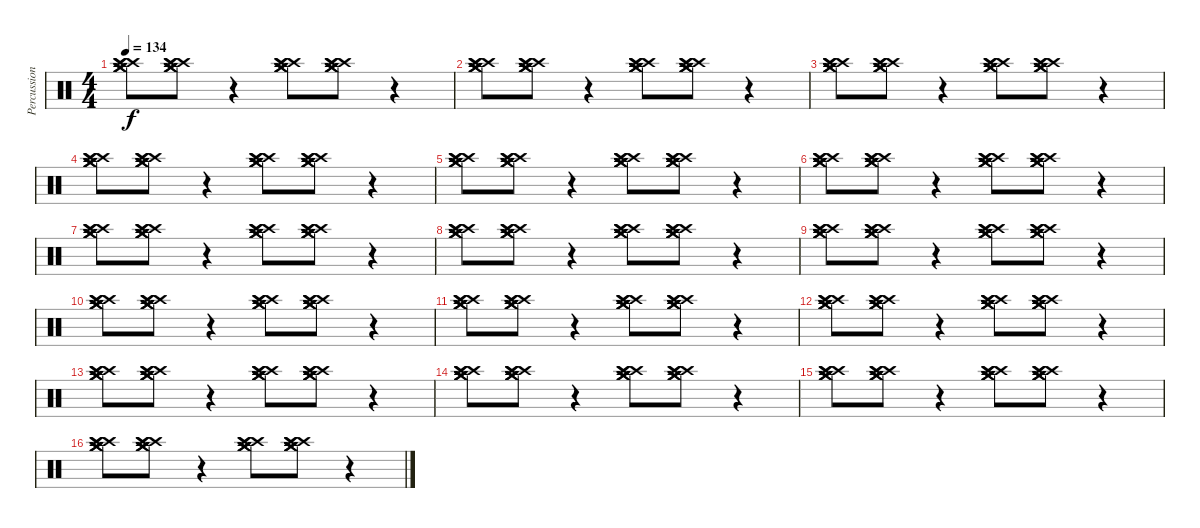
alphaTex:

\track ("Percussion 2" "Percussion") {instrument percussion}
\staff {score}
\articulation defaults
\ts (4 4)
\tempo 134
\clef neutral
\ks c
("Crash medium (hit)" "Crash medium (hit)" "Crash medium (hit)" "Crash high (hit)" "Crash high (hit)" "Crash high (hit)").8{dy f} ("Crash medium (hit)" "Crash medium (hit)" "Crash medium (hit)" "Crash high (hit)" "Crash high (hit)" "Crash high (hit)").8 r.4 ("Crash medium (hit)" "Crash medium (hit)" "Crash medium (hit)" "Crash high (hit)" "Crash high (hit)" "Crash high (hit)").8 ("Crash medium (hit)" "Crash medium (hit)" "Crash medium (hit)" "Crash high (hit)" "Crash high (hit)" "Crash high (hit)").8 r.4 |
("Crash medium (hit)" "Crash medium (hit)" "Crash medium (hit)" "Crash high (hit)" "Crash high (hit)" "Crash high (hit)").8 ("Crash medium (hit)" "Crash medium (hit)" "Crash medium (hit)" "Crash high (hit)" "Crash high (hit)" "Crash high (hit)").8 r.4 ("Crash medium (hit)" "Crash medium (hit)" "Crash medium (hit)" "Crash high (hit)" "Crash high (hit)" "Crash high (hit)").8 ("Crash medium (hit)" "Crash medium (hit)" "Crash medium (hit)" "Crash high (hit)" "Crash high (hit)" "Crash high (hit)").8 r.4 |
("Crash medium (hit)" "Crash medium (hit)" "Crash medium (hit)" "Crash high (hit)" "Crash high (hit)" "Crash high (hit)").8 ("Crash medium (hit)" "Crash medium (hit)" "Crash medium (hit)" "Crash high (hit)" "Crash high (hit)" "Crash high (hit)").8 r.4 ("Crash medium (hit)" "Crash medium (hit)" "Crash medium (hit)" "Crash high (hit)" "Crash high (hit)" "Crash high (hit)").8 ("Crash medium (hit)" "Crash medium (hit)" "Crash medium (hit)" "Crash high (hit)" "Crash high (hit)" "Crash high (hit)").8 r.4 |
("Crash medium (hit)" "Crash medium (hit)" "Crash medium (hit)" "Crash high (hit)" "Crash high (hit)" "Crash high (hit)").8 ("Crash medium (hit)" "Crash medium (hit)" "Crash medium (hit)" "Crash high (hit)" "Crash high (hit)" "Crash high (hit)").8 r.4 ("Crash medium (hit)" "Crash medium (hit)" "Crash medium (hit)" "Crash high (hit)" "Crash high (hit)" "Crash high (hit)").8 ("Crash medium (hit)" "Crash medium (hit)" "Crash medium (hit)" "Crash high (hit)" "Crash high (hit)" "Crash high (hit)").8 r.4 |
("Crash medium (hit)" "Crash medium (hit)" "Crash medium (hit)" "Crash high (hit)" "Crash high (hit)" "Crash high (hit)").8 ("Crash medium (hit)" "Crash medium (hit)" "Crash medium (hit)" "Crash high (hit)" "Crash high (hit)" "Crash high (hit)").8 r.4 ("Crash medium (hit)" "Crash medium (hit)" "Crash medium (hit)" "Crash high (hit)" "Crash high (hit)" "Crash high (hit)").8 ("Crash medium (hit)" "Crash medium (hit)" "Crash medium (hit)" "Crash high (hit)" "Crash high (hit)" "Crash high (hit)").8 r.4 |
("Crash medium (hit)" "Crash medium (hit)" "Crash medium (hit)" "Crash high (hit)" "Crash high (hit)" "Crash high (hit)").8 ("Crash medium (hit)" "Crash medium (hit)" "Crash medium (hit)" "Crash high (hit)" "Crash high (hit)" "Crash high (hit)").8 r.4 ("Crash medium (hit)" "Crash medium (hit)" "Crash medium (hit)" "Crash high (hit)" "Crash high (hit)" "Crash high (hit)").8 ("Crash medium (hit)" "Crash medium (hit)" "Crash medium (hit)" "Crash high (hit)" "Crash high (hit)" "Crash high (hit)").8 r.4 |
("Crash medium (hit)" "Crash medium (hit)" "Crash medium (hit)" "Crash high (hit)" "Crash high (hit)" "Crash high (hit)").8 ("Crash medium (hit)" "Crash medium (hit)" "Crash medium (hit)" "Crash high (hit)" "Crash high (hit)" "Crash high (hit)").8 r.4 ("Crash medium (hit)" "Crash medium (hit)" "Crash medium (hit)" "Crash high (hit)" "Crash high (hit)" "Crash high (hit)").8 ("Crash medium (hit)" "Crash medium (hit)" "Crash medium (hit)" "Crash high (hit)" "Crash high (hit)" "Crash high (hit)").8 r.4 |
("Crash medium (hit)" "Crash medium (hit)" "Crash medium (hit)" "Crash high (hit)" "Crash high (hit)" "Crash high (hit)").8 ("Crash medium (hit)" "Crash medium (hit)" "Crash medium (hit)" "Crash high (hit)" "Crash high (hit)" "Crash high (hit)").8 r.4 ("Crash medium (hit)" "Crash medium (hit)" "Crash medium (hit)" "Crash high (hit)" "Crash high (hit)" "Crash high (hit)").8 ("Crash medium (hit)" "Crash medium (hit)" "Crash medium (hit)" "Crash high (hit)" "Crash high (hit)" "Crash high (hit)").8 r.4 |
("Crash medium (hit)" "Crash medium (hit)" "Crash medium (hit)" "Crash high (hit)" "Crash high (hit)" "Crash high (hit)").8 ("Crash medium (hit)" "Crash medium (hit)" "Crash medium (hit)" "Crash high (hit)" "Crash high (hit)" "Crash high (hit)").8 r.4 ("Crash medium (hit)" "Crash medium (hit)" "Crash medium (hit)" "Crash high (hit)" "Crash high (hit)" "Crash high (hit)").8 ("Crash medium (hit)" "Crash medium (hit)" "Crash medium (hit)" "Crash high (hit)" "Crash high (hit)" "Crash high (hit)").8 r.4 |
("Crash medium (hit)" "Crash medium (hit)" "Crash medium (hit)" "Crash high (hit)" "Crash high (hit)" "Crash high (hit)").8 ("Crash medium (hit)" "Crash medium (hit)" "Crash medium (hit)" "Crash high (hit)" "Crash high (hit)" "Crash high (hit)").8 r.4 ("Crash medium (hit)" "Crash medium (hit)" "Crash medium (hit)" "Crash high (hit)" "Crash high (hit)" "Crash high (hit)").8 ("Crash medium (hit)" "Crash medium (hit)" "Crash medium (hit)" "Crash high (hit)" "Crash high (hit)" "Crash high (hit)").8 r.4 |
("Crash medium (hit)" "Crash medium (hit)" "Crash medium (hit)" "Crash high (hit)" "Crash high (hit)" "Crash high (hit)").8 ("Crash medium (hit)" "Crash medium (hit)" "Crash medium (hit)" "Crash high (hit)" "Crash high (hit)" "Crash high (hit)").8 r.4 ("Crash medium (hit)" "Crash medium (hit)" "Crash medium (hit)" "Crash high (hit)" "Crash high (hit)" "Crash high (hit)").8 ("Crash medium (hit)" "Crash medium (hit)" "Crash medium (hit)" "Crash high (hit)" "Crash high (hit)" "Crash high (hit)").8 r.4 |
("Crash medium (hit)" "Crash medium (hit)" "Crash medium (hit)" "Crash high (hit)" "Crash high (hit)" "Crash high (hit)").8 ("Crash medium (hit)" "Crash medium (hit)" "Crash medium (hit)" "Crash high (hit)" "Crash high (hit)" "Crash high (hit)").8 r.4 ("Crash medium (hit)" "Crash medium (hit)" "Crash medium (hit)" "Crash high (hit)" "Crash high (hit)" "Crash high (hit)").8 ("Crash medium (hit)" "Crash medium (hit)" "Crash medium (hit)" "Crash high (hit)" "Crash high (hit)" "Crash high (hit)").8 r.4 |
("Crash medium (hit)" "Crash medium (hit)" "Crash medium (hit)" "Crash high (hit)" "Crash high (hit)" "Crash high (hit)").8 ("Crash medium (hit)" "Crash medium (hit)" "Crash medium (hit)" "Crash high (hit)" "Crash high (hit)" "Crash high (hit)").8 r.4 ("Crash medium (hit)" "Crash medium (hit)" "Crash medium (hit)" "Crash high (hit)" "Crash high (hit)" "Crash high (hit)").8 ("Crash medium (hit)" "Crash medium (hit)" "Crash medium (hit)" "Crash high (hit)" "Crash high (hit)" "Crash high (hit)").8 r.4 |
("Crash medium (hit)" "Crash medium (hit)" "Crash medium (hit)" "Crash high (hit)" "Crash high (hit)" "Crash high (hit)").8 ("Crash medium (hit)" "Crash medium (hit)" "Crash medium (hit)" "Crash high (hit)" "Crash high (hit)" "Crash high (hit)").8 r.4 ("Crash medium (hit)" "Crash medium (hit)" "Crash medium (hit)" "Crash high (hit)" "Crash high (hit)" "Crash high (hit)").8 ("Crash medium (hit)" "Crash medium (hit)" "Crash medium (hit)" "Crash high (hit)" "Crash high (hit)" "Crash high (hit)").8 r.4 |
("Crash medium (hit)" "Crash medium (hit)" "Crash medium (hit)" "Crash high (hit)" "Crash high (hit)" "Crash high (hit)").8 ("Crash medium (hit)" "Crash medium (hit)" "Crash medium (hit)" "Crash high (hit)" "Crash high (hit)" "Crash high (hit)").8 r.4 ("Crash medium (hit)" "Crash medium (hit)" "Crash medium (hit)" "Crash high (hit)" "Crash high (hit)" "Crash high (hit)").8 ("Crash medium (hit)" "Crash medium (hit)" "Crash medium (hit)" "Crash high (hit)" "Crash high (hit)" "Crash high (hit)").8 r.4 |
("Crash medium (hit)" "Crash medium (hit)" "Crash medium (hit)" "Crash high (hit)" "Crash high (hit)" "Crash high (hit)").8 ("Crash medium (hit)" "Crash medium (hit)" "Crash medium (hit)" "Crash high (hit)" "Crash high (hit)" "Crash high (hit)").8 r.4 ("Crash medium (hit)" "Crash medium (hit)" "Crash medium (hit)" "Crash high (hit)" "Crash high (hit)" "Crash high (hit)").8 ("Crash medium (hit)" "Crash medium (hit)" "Crash medium (hit)" "Crash high (hit)" "Crash high (hit)" "Crash high (hit)").8 r.4
